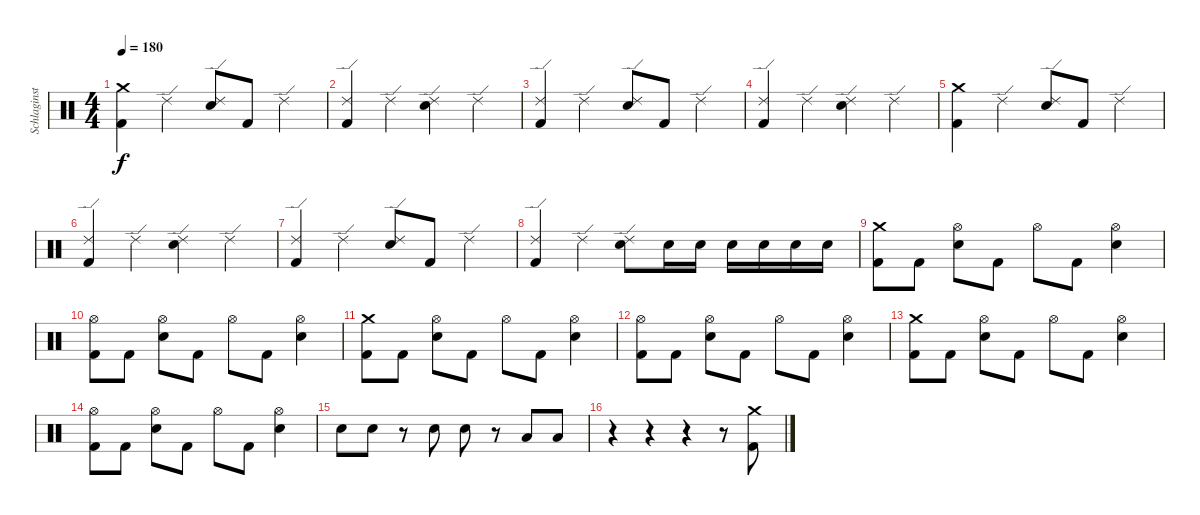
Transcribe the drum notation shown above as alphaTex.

\track ("Schlaginstrumente - Auswahl" "Schlaginst") {instrument percussion}
\staff {score}
\articulation defaults
\ts (4 4)
\tempo 180
\clef neutral
\ks c
("Crash medium (hit)" "Kick (hit) 2").4{dy f} "Ride (edge) 2".4 ("Ride (edge) 2" "Electric Snare (hit)").8 "Kick (hit) 2".8 "Ride (edge) 2".4 |
("Ride (edge) 2" "Kick (hit) 2").4 "Ride (edge) 2".4 ("Ride (edge) 2" "Electric Snare (hit)").4 "Ride (edge) 2".4 |
("Ride (edge) 2" "Kick (hit) 2").4 "Ride (edge) 2".4 ("Ride (edge) 2" "Electric Snare (hit)").8 "Kick (hit) 2".8 "Ride (edge) 2".4 |
("Ride (edge) 2" "Kick (hit) 2").4 "Ride (edge) 2".4 ("Ride (edge) 2" "Electric Snare (hit)").4 "Ride (edge) 2".4 |
("Crash medium (hit)" "Kick (hit) 2").4 "Ride (edge) 2".4 ("Ride (edge) 2" "Electric Snare (hit)").8 "Kick (hit) 2".8 "Ride (edge) 2".4 |
("Ride (edge) 2" "Kick (hit) 2").4 "Ride (edge) 2".4 ("Ride (edge) 2" "Electric Snare (hit)").4 "Ride (edge) 2".4 |
("Ride (edge) 2" "Kick (hit) 2").4 "Ride (edge) 2".4 ("Ride (edge) 2" "Electric Snare (hit)").8 "Kick (hit) 2".8 "Ride (edge) 2".4 |
("Ride (edge) 2" "Kick (hit) 2").4 "Ride (edge) 2".4 ("Ride (edge) 2" "Electric Snare (hit)").8 "Electric Snare (hit)".16 "Electric Snare (hit)".16 "Electric Snare (hit)".16 "Electric Snare (hit)".16 "Electric Snare (hit)".16 "Electric Snare (hit)".16 |
("Crash medium (hit)" "Kick (hit) 2").8 "Kick (hit) 2".8 ("Hi-Hat (open)" "Electric Snare (hit)").8 "Kick (hit) 2".8 "Hi-Hat (open)".8 "Kick (hit) 2".8 ("Hi-Hat (open)" "Electric Snare (hit)").4 |
("Hi-Hat (open)" "Kick (hit) 2").8 "Kick (hit) 2".8 ("Hi-Hat (open)" "Electric Snare (hit)").8 "Kick (hit) 2".8 "Hi-Hat (open)".8 "Kick (hit) 2".8 ("Hi-Hat (open)" "Electric Snare (hit)").4 |
("Crash medium (hit)" "Kick (hit) 2").8 "Kick (hit) 2".8 ("Hi-Hat (open)" "Electric Snare (hit)").8 "Kick (hit) 2".8 "Hi-Hat (open)".8 "Kick (hit) 2".8 ("Hi-Hat (open)" "Electric Snare (hit)").4 |
("Hi-Hat (open)" "Kick (hit) 2").8 "Kick (hit) 2".8 ("Hi-Hat (open)" "Electric Snare (hit)").8 "Kick (hit) 2".8 "Hi-Hat (open)".8 "Kick (hit) 2".8 ("Hi-Hat (open)" "Electric Snare (hit)").4 |
("Crash medium (hit)" "Kick (hit) 2").8 "Kick (hit) 2".8 ("Hi-Hat (open)" "Electric Snare (hit)").8 "Kick (hit) 2".8 "Hi-Hat (open)".8 "Kick (hit) 2".8 ("Hi-Hat (open)" "Electric Snare (hit)").4 |
("Hi-Hat (open)" "Kick (hit) 2").8 "Kick (hit) 2".8 ("Hi-Hat (open)" "Electric Snare (hit)").8 "Kick (hit) 2".8 "Hi-Hat (open)".8 "Kick (hit) 2".8 ("Hi-Hat (open)" "Electric Snare (hit)").4 |
"Electric Snare (hit)".8 "Electric Snare (hit)".8 r.8 "Electric Snare (hit)".8 "Electric Snare (hit)".8 r.8 "Low Tom (hit)".8 "Low Tom (hit)".8 |
r.4 r.4 r.4 r.8 ("Crash medium (hit)" "Kick (hit) 2").8
